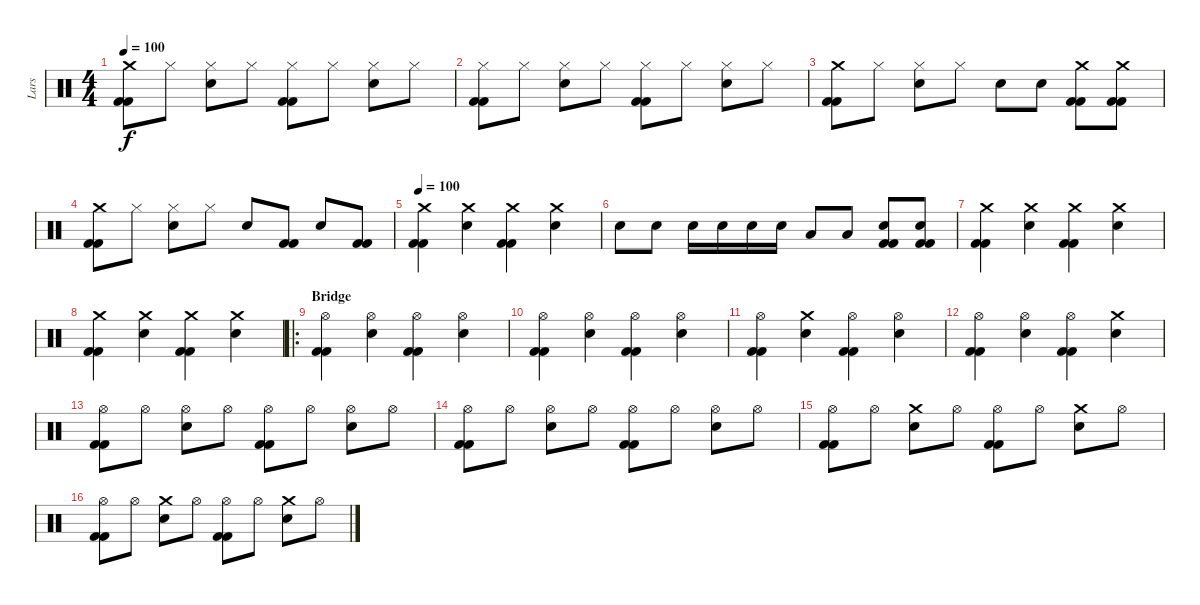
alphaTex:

\track ("Lars" "Lars") {instrument percussion}
\staff {score}
\articulation defaults
\ts (4 4)
\tempo 100
\clef neutral
\ks c
("Crash medium (hit)" "Kick (hit) 2" "Kick (hit) 2").8{dy f} "Hi-Hat (closed)".8 ("Electric Snare (hit)" "Hi-Hat (closed)").8 "Hi-Hat (closed)".8 ("Kick (hit) 2" "Kick (hit) 2" "Hi-Hat (closed)").8 "Hi-Hat (closed)".8 ("Hi-Hat (closed)" "Electric Snare (hit)").8 "Hi-Hat (closed)".8 |
("Hi-Hat (closed)" "Kick (hit) 2" "Kick (hit) 2").8 "Hi-Hat (closed)".8 ("Electric Snare (hit)" "Hi-Hat (closed)").8 "Hi-Hat (closed)".8 ("Kick (hit) 2" "Kick (hit) 2" "Hi-Hat (closed)").8 "Hi-Hat (closed)".8 ("Hi-Hat (closed)" "Electric Snare (hit)").8 "Hi-Hat (closed)".8 |
("Crash medium (hit)" "Kick (hit) 2" "Kick (hit) 2").8 "Hi-Hat (closed)".8 ("Electric Snare (hit)" "Hi-Hat (closed)").8 "Hi-Hat (closed)".8 "Electric Snare (hit)".8 "Electric Snare (hit)".8 ("Crash medium (hit)" "Kick (hit) 2" "Kick (hit) 2").8 ("Kick (hit) 2" "Kick (hit) 2" "Crash medium (hit)").8 |
("Crash medium (hit)" "Kick (hit) 2" "Kick (hit) 2").8 "Hi-Hat (closed)".8 ("Electric Snare (hit)" "Hi-Hat (closed)").8 "Hi-Hat (closed)".8 "Electric Snare (hit)".8 ("Kick (hit) 2" "Kick (hit) 2").8 "Electric Snare (hit)".8 ("Kick (hit) 2" "Kick (hit) 2").8 |
\tempo 100
("Crash medium (hit)" "Kick (hit) 2" "Kick (hit) 2").4 ("Electric Snare (hit)" "Crash medium (hit)").4 ("Crash medium (hit)" "Kick (hit) 2" "Kick (hit) 2").4 ("Electric Snare (hit)" "Crash medium (hit)").4 |
"Electric Snare (hit)".8 "Electric Snare (hit)".8 "Electric Snare (hit)".16 "Electric Snare (hit)".16 "Electric Snare (hit)".16 "Electric Snare (hit)".16 "Low Tom (hit)".8 "Low Tom (hit)".8 ("Kick (hit) 2" "Kick (hit) 2" "Electric Snare (hit)").8 ("Electric Snare (hit)" "Kick (hit) 2" "Kick (hit) 2").8 |
("Crash medium (hit)" "Kick (hit) 2" "Kick (hit) 2").4 ("Electric Snare (hit)" "Crash medium (hit)").4 ("Crash medium (hit)" "Kick (hit) 2" "Kick (hit) 2").4 ("Electric Snare (hit)" "Crash medium (hit)").4 |
("Crash medium (hit)" "Kick (hit) 2" "Kick (hit) 2").4 ("Electric Snare (hit)" "Crash medium (hit)").4 ("Crash medium (hit)" "Kick (hit) 2" "Kick (hit) 2").4 ("Electric Snare (hit)" "Crash medium (hit)").4 |
\ro
\section ("" "Bridge")
("Hi-Hat (open)" "Kick (hit) 2" "Kick (hit) 2").4 ("Electric Snare (hit)" "Hi-Hat (open)").4 ("Hi-Hat (open)" "Kick (hit) 2" "Kick (hit) 2").4 ("Hi-Hat (open)" "Electric Snare (hit)").4 |
("Hi-Hat (open)" "Kick (hit) 2" "Kick (hit) 2").4 ("Electric Snare (hit)" "Hi-Hat (open)").4 ("Hi-Hat (open)" "Kick (hit) 2" "Kick (hit) 2").4 ("Hi-Hat (open)" "Electric Snare (hit)").4 |
("Hi-Hat (open)" "Kick (hit) 2" "Kick (hit) 2").4 ("Electric Snare (hit)" "Crash medium (hit)").4 ("Hi-Hat (open)" "Kick (hit) 2" "Kick (hit) 2").4 ("Hi-Hat (open)" "Electric Snare (hit)").4 |
("Hi-Hat (open)" "Kick (hit) 2" "Kick (hit) 2").4 ("Electric Snare (hit)" "Hi-Hat (open)").4 ("Hi-Hat (open)" "Kick (hit) 2" "Kick (hit) 2").4 ("Crash medium (hit)" "Electric Snare (hit)").4 |
("Hi-Hat (open)" "Kick (hit) 2" "Kick (hit) 2").8 "Hi-Hat (open)".8 ("Electric Snare (hit)" "Hi-Hat (open)").8 "Hi-Hat (open)".8 ("Hi-Hat (open)" "Kick (hit) 2" "Kick (hit) 2").8 "Hi-Hat (open)".8 ("Hi-Hat (open)" "Electric Snare (hit)").8 "Hi-Hat (open)".8 |
("Hi-Hat (open)" "Kick (hit) 2" "Kick (hit) 2").8 "Hi-Hat (open)".8 ("Electric Snare (hit)" "Hi-Hat (open)").8 "Hi-Hat (open)".8 ("Hi-Hat (open)" "Kick (hit) 2" "Kick (hit) 2").8 "Hi-Hat (open)".8 ("Hi-Hat (open)" "Electric Snare (hit)").8 "Hi-Hat (open)".8 |
("Hi-Hat (open)" "Kick (hit) 2" "Kick (hit) 2").8 "Hi-Hat (open)".8 ("Electric Snare (hit)" "Crash medium (hit)").8 "Hi-Hat (open)".8 ("Hi-Hat (open)" "Kick (hit) 2" "Kick (hit) 2").8 "Hi-Hat (open)".8 ("Crash medium (hit)" "Electric Snare (hit)").8 "Hi-Hat (open)".8 |
("Hi-Hat (open)" "Kick (hit) 2" "Kick (hit) 2").8 "Hi-Hat (open)".8 ("Electric Snare (hit)" "Crash medium (hit)").8 "Hi-Hat (open)".8 ("Hi-Hat (open)" "Kick (hit) 2" "Kick (hit) 2").8 "Hi-Hat (open)".8 ("Crash medium (hit)" "Electric Snare (hit)").8 "Hi-Hat (open)".8
